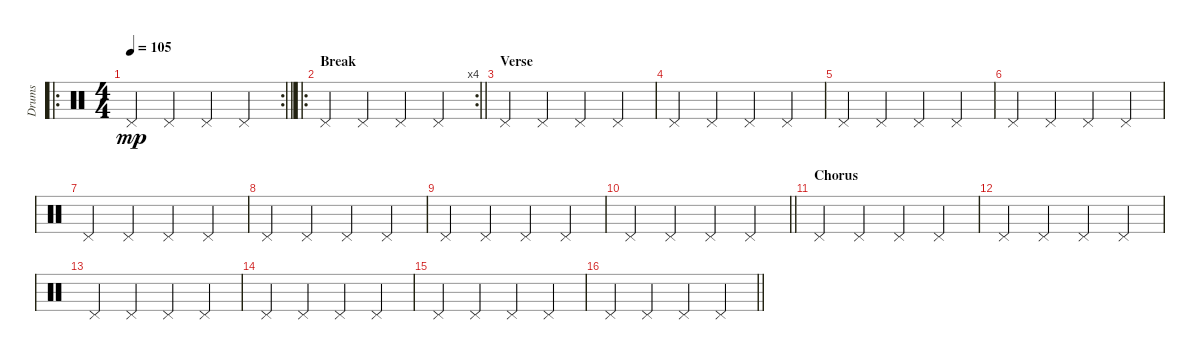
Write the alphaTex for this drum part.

\track ("Drums" "Drums") {instrument percussion}
\staff {score}
\articulation defaults
\ro
\rc 2
\ts (4 4)
\tempo 105
\clef neutral
\barLineRight lightlight
\ks c "Pedal Hi-Hat (hit)".4{dy mp} "Pedal Hi-Hat (hit)".4 "Pedal Hi-Hat (hit)".4 "Pedal Hi-Hat (hit)".4
|
\ro
\rc 4
\section ("" "Break")
\barLineRight lightlight "Pedal Hi-Hat (hit)".4 "Pedal Hi-Hat (hit)".4 "Pedal Hi-Hat (hit)".4 "Pedal Hi-Hat (hit)".4
|
\section ("" "Verse")
"Pedal Hi-Hat (hit)".4 "Pedal Hi-Hat (hit)".4 "Pedal Hi-Hat (hit)".4 "Pedal Hi-Hat (hit)".4 |
"Pedal Hi-Hat (hit)".4 "Pedal Hi-Hat (hit)".4 "Pedal Hi-Hat (hit)".4 "Pedal Hi-Hat (hit)".4 |
"Pedal Hi-Hat (hit)".4 "Pedal Hi-Hat (hit)".4 "Pedal Hi-Hat (hit)".4 "Pedal Hi-Hat (hit)".4 |
"Pedal Hi-Hat (hit)".4 "Pedal Hi-Hat (hit)".4 "Pedal Hi-Hat (hit)".4 "Pedal Hi-Hat (hit)".4 |
"Pedal Hi-Hat (hit)".4 "Pedal Hi-Hat (hit)".4 "Pedal Hi-Hat (hit)".4 "Pedal Hi-Hat (hit)".4 |
"Pedal Hi-Hat (hit)".4 "Pedal Hi-Hat (hit)".4 "Pedal Hi-Hat (hit)".4 "Pedal Hi-Hat (hit)".4 |
"Pedal Hi-Hat (hit)".4 "Pedal Hi-Hat (hit)".4 "Pedal Hi-Hat (hit)".4 "Pedal Hi-Hat (hit)".4 |
\barLineRight lightlight "Pedal Hi-Hat (hit)".4 "Pedal Hi-Hat (hit)".4 "Pedal Hi-Hat (hit)".4 "Pedal Hi-Hat (hit)".4
|
\section ("" "Chorus")
"Pedal Hi-Hat (hit)".4 "Pedal Hi-Hat (hit)".4 "Pedal Hi-Hat (hit)".4 "Pedal Hi-Hat (hit)".4 |
"Pedal Hi-Hat (hit)".4 "Pedal Hi-Hat (hit)".4 "Pedal Hi-Hat (hit)".4 "Pedal Hi-Hat (hit)".4 |
"Pedal Hi-Hat (hit)".4 "Pedal Hi-Hat (hit)".4 "Pedal Hi-Hat (hit)".4 "Pedal Hi-Hat (hit)".4 |
"Pedal Hi-Hat (hit)".4 "Pedal Hi-Hat (hit)".4 "Pedal Hi-Hat (hit)".4 "Pedal Hi-Hat (hit)".4 |
"Pedal Hi-Hat (hit)".4 "Pedal Hi-Hat (hit)".4 "Pedal Hi-Hat (hit)".4 "Pedal Hi-Hat (hit)".4 |
\barLineRight lightlight "Pedal Hi-Hat (hit)".4 "Pedal Hi-Hat (hit)".4 "Pedal Hi-Hat (hit)".4 "Pedal Hi-Hat (hit)".4
